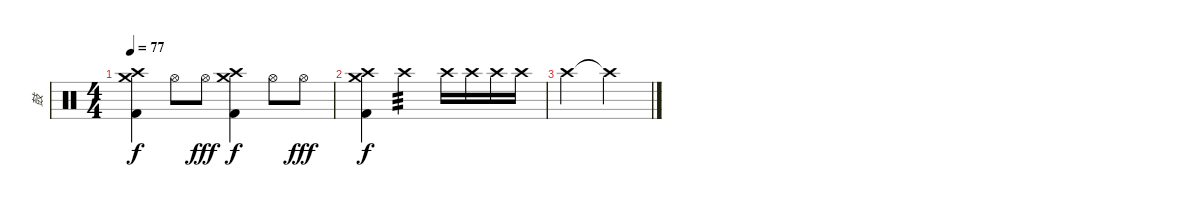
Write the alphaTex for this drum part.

\track ("鼓" "鼓") {instrument percussion}
\staff {score}
\articulation defaults
\ts (4 4)
\tempo 77
\clef neutral
\ks c
("Crash high (hit)" "Crash medium (hit)" "Kick (hit) 2").4{dy f} "Hi-Hat (open)".8 "Hi-Hat (open)".8{dy fff} ("Crash high (hit)" "Crash medium (hit)" "Kick (hit) 2").4{dy f} "Hi-Hat (open)".8 "Hi-Hat (open)".8{dy fff} |
("Crash high (hit)" "Crash medium (hit)" "Kick (hit) 2").4{dy f} "Crash high (hit)".2{tp 3} "Crash high (hit)".16 "Crash high (hit)".16 "Crash high (hit)".16 "Crash high (hit)".16 |
"Crash high (hit)".2 "Crash high (hit)"{t}.2
